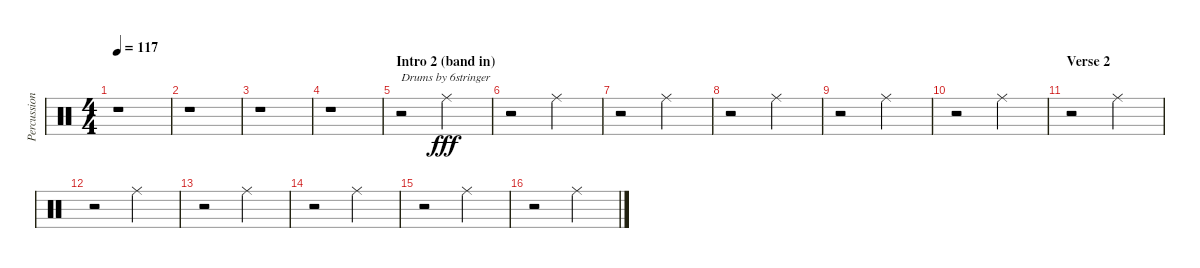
\track ("Percussion" "Percussion") {instrument percussion}
\staff {score}
\articulation defaults
\ts (4 4)
\tempo 117
\clef neutral
\ks c
r.1{dy fff} |
r.1 |
r.1 |
r.1 |
\section ("" "Intro 2 (band in)")
r.2{txt "Drums by 6stringer"} "Ride (middle)".2 |
r.2 "Ride (middle)".2 |
r.2 "Ride (middle)".2 |
r.2 "Ride (middle)".2 |
r.2 "Ride (middle)".2 |
r.2 "Ride (middle)".2 |
\section ("" "Verse 2")
r.2 "Ride (middle)".2 |
r.2 "Ride (middle)".2 |
r.2 "Ride (middle)".2 |
r.2 "Ride (middle)".2 |
r.2 "Ride (middle)".2 |
r.2 "Ride (middle)".2
